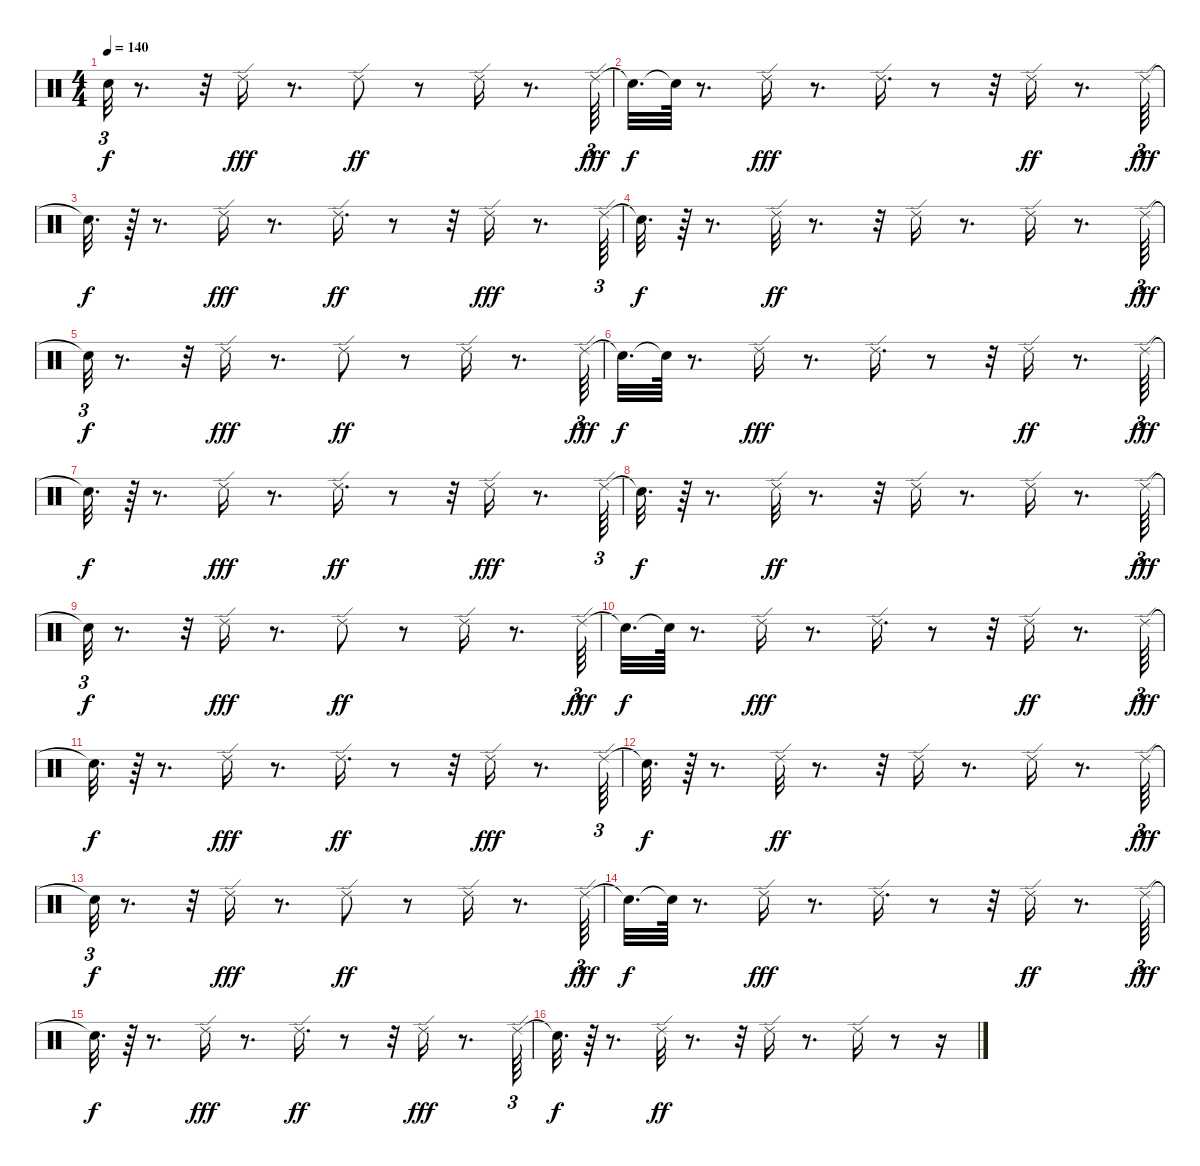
\track "" {instrument percussion}
\staff {score}
\articulation defaults
\ts (4 4)
\tempo 140
\clef neutral
\ks c "Snare (hit)"{t}.32{tu (3 2) dy f}
r.8{d} r.32 "Ride (edge) 2".16{dy fff} r.8{d} "Ride (edge) 2".8{dy ff} r.8 "Ride (edge) 2".16 r.8{d} "Ride (edge) 2".64{tu (3 2) dy fff} |
"Snare (hit)"{t}.32{d dy f} "Snare (hit)"{t}.64 r.8{d} "Ride (edge) 2".16{dy fff} r.8{d} "Ride (edge) 2".16{d} r.8 r.32 "Ride (edge) 2".16{dy ff} r.8{d} "Ride (edge) 2".64{tu (3 2) dy fff} |
"Snare (hit)"{t}.32{d dy f} r.64 r.8{d} "Ride (edge) 2".16{dy fff} r.8{d} "Ride (edge) 2".16{d dy ff} r.8 r.32 "Ride (edge) 2".16{dy fff} r.8{d} "Ride (edge) 2".64{tu (3 2)} |
"Snare (hit)"{t}.32{d dy f} r.64 r.8{d} "Ride (edge) 2".32{dy ff} r.8{d} r.32 "Ride (edge) 2".16 r.8{d} "Ride (edge) 2".16 r.8{d} "Ride (edge) 2".64{tu (3 2) dy fff} |
"Snare (hit)"{t}.32{tu (3 2) dy f} r.8{d} r.32 "Ride (edge) 2".16{dy fff} r.8{d} "Ride (edge) 2".8{dy ff} r.8 "Ride (edge) 2".16 r.8{d} "Ride (edge) 2".64{tu (3 2) dy fff} |
"Snare (hit)"{t}.32{d dy f} "Snare (hit)"{t}.64 r.8{d} "Ride (edge) 2".16{dy fff} r.8{d} "Ride (edge) 2".16{d} r.8 r.32 "Ride (edge) 2".16{dy ff} r.8{d} "Ride (edge) 2".64{tu (3 2) dy fff} |
"Snare (hit)"{t}.32{d dy f} r.64 r.8{d} "Ride (edge) 2".16{dy fff} r.8{d} "Ride (edge) 2".16{d dy ff} r.8 r.32 "Ride (edge) 2".16{dy fff} r.8{d} "Ride (edge) 2".64{tu (3 2)} |
"Snare (hit)"{t}.32{d dy f} r.64 r.8{d} "Ride (edge) 2".32{dy ff} r.8{d} r.32 "Ride (edge) 2".16 r.8{d} "Ride (edge) 2".16 r.8{d} "Ride (edge) 2".64{tu (3 2) dy fff} |
"Snare (hit)"{t}.32{tu (3 2) dy f} r.8{d} r.32 "Ride (edge) 2".16{dy fff} r.8{d} "Ride (edge) 2".8{dy ff} r.8 "Ride (edge) 2".16 r.8{d} "Ride (edge) 2".64{tu (3 2) dy fff} |
"Snare (hit)"{t}.32{d dy f} "Snare (hit)"{t}.64 r.8{d} "Ride (edge) 2".16{dy fff} r.8{d} "Ride (edge) 2".16{d} r.8 r.32 "Ride (edge) 2".16{dy ff} r.8{d} "Ride (edge) 2".64{tu (3 2) dy fff} |
"Snare (hit)"{t}.32{d dy f} r.64 r.8{d} "Ride (edge) 2".16{dy fff} r.8{d} "Ride (edge) 2".16{d dy ff} r.8 r.32 "Ride (edge) 2".16{dy fff} r.8{d} "Ride (edge) 2".64{tu (3 2)} |
"Snare (hit)"{t}.32{d dy f} r.64 r.8{d} "Ride (edge) 2".32{dy ff} r.8{d} r.32 "Ride (edge) 2".16 r.8{d} "Ride (edge) 2".16 r.8{d} "Ride (edge) 2".64{tu (3 2) dy fff} |
"Snare (hit)"{t}.32{tu (3 2) dy f} r.8{d} r.32 "Ride (edge) 2".16{dy fff} r.8{d} "Ride (edge) 2".8{dy ff} r.8 "Ride (edge) 2".16 r.8{d} "Ride (edge) 2".64{tu (3 2) dy fff} |
"Snare (hit)"{t}.32{d dy f} "Snare (hit)"{t}.64 r.8{d} "Ride (edge) 2".16{dy fff} r.8{d} "Ride (edge) 2".16{d} r.8 r.32 "Ride (edge) 2".16{dy ff} r.8{d} "Ride (edge) 2".64{tu (3 2) dy fff} |
"Snare (hit)"{t}.32{d dy f} r.64 r.8{d} "Ride (edge) 2".16{dy fff} r.8{d} "Ride (edge) 2".16{d dy ff} r.8 r.32 "Ride (edge) 2".16{dy fff} r.8{d} "Ride (edge) 2".64{tu (3 2)} |
"Snare (hit)"{t}.32{d dy f} r.64 r.8{d} "Ride (edge) 2".32{dy ff} r.8{d} r.32 "Ride (edge) 2".16 r.8{d} "Ride (edge) 2".16 r.8 r.16
